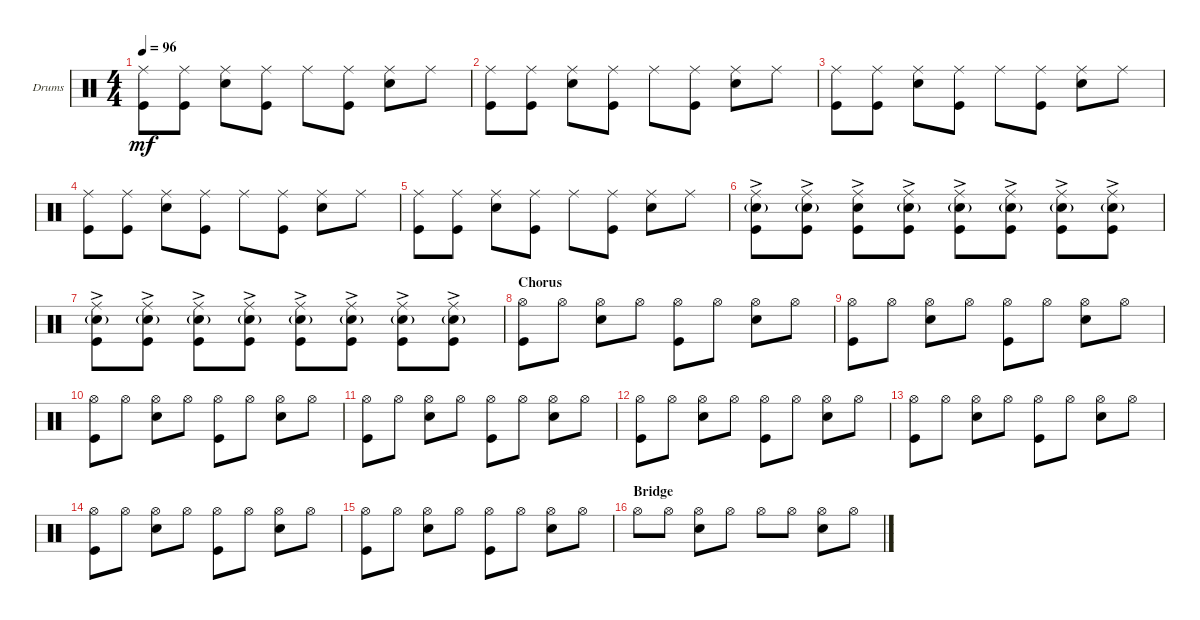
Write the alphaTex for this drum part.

\defaultSystemsLayout 4
\bracketExtendMode groupsimilarinstruments
\firstSystemTrackNameOrientation horizontal
\otherSystemsTrackNameOrientation horizontal
\track ("Drumkit" "Drums") {instrument percussion}
\staff {score}
\articulation defaults
\ts (4 4)
\tempo 96
\clef neutral
\ks c
("Ride (middle)" "Kick (hit)").8{dy mf} ("Ride (middle)" "Kick (hit)").8 ("Ride (middle)" "Snare (hit) 2").8 ("Ride (middle)" "Kick (hit)").8 "Ride (middle)".8 ("Ride (middle)" "Kick (hit)").8 ("Ride (middle)" "Snare (hit) 2").8 "Ride (middle)".8 |
("Ride (middle)" "Kick (hit)").8 ("Ride (middle)" "Kick (hit)").8 ("Ride (middle)" "Snare (hit) 2").8 ("Ride (middle)" "Kick (hit)").8 "Ride (middle)".8 ("Ride (middle)" "Kick (hit)").8 ("Ride (middle)" "Snare (hit) 2").8 "Ride (middle)".8 |
("Ride (middle)" "Kick (hit)").8 ("Ride (middle)" "Kick (hit)").8 ("Ride (middle)" "Snare (hit) 2").8 ("Ride (middle)" "Kick (hit)").8 "Ride (middle)".8 ("Ride (middle)" "Kick (hit)").8 ("Ride (middle)" "Snare (hit) 2").8 "Ride (middle)".8 |
("Ride (middle)" "Kick (hit)").8 ("Ride (middle)" "Kick (hit)").8 ("Ride (middle)" "Snare (hit) 2").8 ("Ride (middle)" "Kick (hit)").8 "Ride (middle)".8 ("Ride (middle)" "Kick (hit)").8 ("Ride (middle)" "Snare (hit) 2").8 "Ride (middle)".8 |
("Ride (middle)" "Kick (hit)").8 ("Ride (middle)" "Kick (hit)").8 ("Ride (middle)" "Snare (hit) 2").8 ("Ride (middle)" "Kick (hit)").8 "Ride (middle)".8 ("Ride (middle)" "Kick (hit)").8 ("Ride (middle)" "Snare (hit) 2").8 "Ride (middle)".8 |
("Ride (middle)"{ac} "Kick (hit)" "Snare (hit) 2"{g}).8 ("Ride (middle)"{ac} "Kick (hit)" "Snare (hit) 2"{g}).8 ("Ride (middle)"{ac} "Snare (hit) 2" "Kick (hit)").8 ("Ride (middle)"{ac} "Kick (hit)" "Snare (hit) 2"{g}).8 ("Ride (middle)"{ac} "Kick (hit)" "Snare (hit) 2"{g}).8 ("Ride (middle)"{ac} "Kick (hit)" "Snare (hit) 2"{g}).8 ("Ride (middle)"{ac} "Kick (hit)" "Snare (hit) 2"{g}).8 ("Ride (middle)"{ac} "Kick (hit)" "Snare (hit) 2"{g}).8 |
("Ride (middle)"{ac} "Kick (hit)" "Snare (hit) 2"{g}).8 ("Ride (middle)"{ac} "Kick (hit)" "Snare (hit) 2"{g}).8 ("Ride (middle)"{ac} "Kick (hit)" "Snare (hit) 2"{g}).8 ("Ride (middle)"{ac} "Kick (hit)" "Snare (hit) 2"{g}).8 ("Ride (middle)"{ac} "Kick (hit)" "Snare (hit) 2"{g}).8 ("Ride (middle)"{ac} "Kick (hit)" "Snare (hit) 2"{g}).8 ("Ride (middle)"{ac} "Kick (hit)" "Snare (hit) 2"{g}).8 ("Ride (middle)"{ac} "Kick (hit)" "Snare (hit) 2"{g}).8 |
\section ("" "Chorus")
("Hi-Hat (open)" "Kick (hit)").8 "Hi-Hat (open)".8 ("Hi-Hat (open)" "Snare (hit) 2").8 "Hi-Hat (open)".8 ("Hi-Hat (open)" "Kick (hit)").8 "Hi-Hat (open)".8 ("Hi-Hat (open)" "Snare (hit) 2").8 "Hi-Hat (open)".8 |
("Hi-Hat (open)" "Kick (hit)").8 "Hi-Hat (open)".8 ("Hi-Hat (open)" "Snare (hit) 2").8 "Hi-Hat (open)".8 ("Hi-Hat (open)" "Kick (hit)").8 "Hi-Hat (open)".8 ("Hi-Hat (open)" "Snare (hit) 2").8 "Hi-Hat (open)".8 |
("Hi-Hat (open)" "Kick (hit)").8 "Hi-Hat (open)".8 ("Hi-Hat (open)" "Snare (hit) 2").8 "Hi-Hat (open)".8 ("Hi-Hat (open)" "Kick (hit)").8 "Hi-Hat (open)".8 ("Hi-Hat (open)" "Snare (hit) 2").8 "Hi-Hat (open)".8 |
("Hi-Hat (open)" "Kick (hit)").8 "Hi-Hat (open)".8 ("Hi-Hat (open)" "Snare (hit) 2").8 "Hi-Hat (open)".8 ("Hi-Hat (open)" "Kick (hit)").8 "Hi-Hat (open)".8 ("Hi-Hat (open)" "Snare (hit) 2").8 "Hi-Hat (open)".8 |
("Hi-Hat (open)" "Kick (hit)").8 "Hi-Hat (open)".8 ("Hi-Hat (open)" "Snare (hit) 2").8 "Hi-Hat (open)".8 ("Hi-Hat (open)" "Kick (hit)").8 "Hi-Hat (open)".8 ("Hi-Hat (open)" "Snare (hit) 2").8 "Hi-Hat (open)".8 |
("Hi-Hat (open)" "Kick (hit)").8 "Hi-Hat (open)".8 ("Hi-Hat (open)" "Snare (hit) 2").8 "Hi-Hat (open)".8 ("Hi-Hat (open)" "Kick (hit)").8 "Hi-Hat (open)".8 ("Hi-Hat (open)" "Snare (hit) 2").8 "Hi-Hat (open)".8 |
("Hi-Hat (open)" "Kick (hit)").8 "Hi-Hat (open)".8 ("Hi-Hat (open)" "Snare (hit) 2").8 "Hi-Hat (open)".8 ("Hi-Hat (open)" "Kick (hit)").8 "Hi-Hat (open)".8 ("Hi-Hat (open)" "Snare (hit) 2").8 "Hi-Hat (open)".8 |
("Hi-Hat (open)" "Kick (hit)").8 "Hi-Hat (open)".8 ("Hi-Hat (open)" "Snare (hit) 2").8 "Hi-Hat (open)".8 ("Hi-Hat (open)" "Kick (hit)").8 "Hi-Hat (open)".8 ("Hi-Hat (open)" "Snare (hit) 2").8 "Hi-Hat (open)".8 |
\section ("" "Bridge")
"Hi-Hat (open)".8 "Hi-Hat (open)".8 ("Hi-Hat (open)" "Snare (hit) 2").8 "Hi-Hat (open)".8 "Hi-Hat (open)".8 "Hi-Hat (open)".8 ("Hi-Hat (open)" "Snare (hit) 2").8 "Hi-Hat (open)".8
